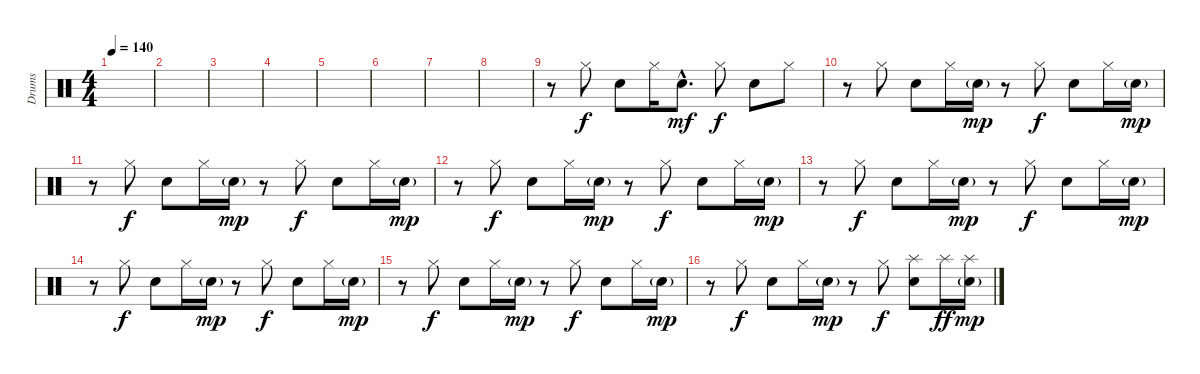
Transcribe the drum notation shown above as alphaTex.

\track ("Drums" "Drums") {instrument percussion}
\staff {score}
\articulation defaults
\ts (4 4)
\tempo 140
\clef neutral
\ks c
|
|
|
|
|
|
|
|
r.8{volume 8} "Hi-Hat (closed)".8{volume 14} "Hand Clap (hit)".8 "Hi-Hat (closed)".16 "Hand Clap (hit)"{hac}.8{d dy mf} "Hi-Hat (closed)".8{dy f} "Hand Clap (hit)".8 "Hi-Hat (closed)".8 |
r.8 "Hi-Hat (closed)".8 "Hand Clap (hit)".8 "Hi-Hat (closed)".16 "Hand Clap (hit)"{g}.16{dy mp} r.8 "Hi-Hat (closed)".8{dy f} "Hand Clap (hit)".8 "Hi-Hat (closed)".16 "Hand Clap (hit)"{g}.16{dy mp} |
r.8 "Hi-Hat (closed)".8{dy f} "Hand Clap (hit)".8 "Hi-Hat (closed)".16 "Hand Clap (hit)"{g}.16{dy mp} r.8 "Hi-Hat (closed)".8{dy f} "Hand Clap (hit)".8 "Hi-Hat (closed)".16 "Hand Clap (hit)"{g}.16{dy mp} |
r.8 "Hi-Hat (closed)".8{dy f} "Hand Clap (hit)".8 "Hi-Hat (closed)".16 "Hand Clap (hit)"{g}.16{dy mp} r.8 "Hi-Hat (closed)".8{dy f} "Hand Clap (hit)".8 "Hi-Hat (closed)".16 "Hand Clap (hit)"{g}.16{dy mp} |
r.8 "Hi-Hat (closed)".8{dy f} "Hand Clap (hit)".8 "Hi-Hat (closed)".16 "Hand Clap (hit)"{g}.16{dy mp} r.8 "Hi-Hat (closed)".8{dy f} "Hand Clap (hit)".8 "Hi-Hat (closed)".16 "Hand Clap (hit)"{g}.16{dy mp} |
r.8 "Hi-Hat (closed)".8{dy f} "Hand Clap (hit)".8 "Hi-Hat (closed)".16 "Hand Clap (hit)"{g}.16{dy mp} r.8 "Hi-Hat (closed)".8{dy f} "Hand Clap (hit)".8 "Hi-Hat (closed)".16 "Hand Clap (hit)"{g}.16{dy mp} |
r.8 "Hi-Hat (closed)".8{dy f} "Hand Clap (hit)".8 "Hi-Hat (closed)".16 "Hand Clap (hit)"{g}.16{dy mp} r.8 "Hi-Hat (closed)".8{dy f} "Hand Clap (hit)".8 "Hi-Hat (closed)".16 "Hand Clap (hit)"{g}.16{dy mp} |
r.8 "Hi-Hat (closed)".8{dy f} "Hand Clap (hit)".8 "Hi-Hat (closed)".16 "Hand Clap (hit)"{g}.16{dy mp} r.8 "Hi-Hat (closed)".8{dy f} ("Splash (hit)" "Hand Clap (hit)").8 "Splash (hit)".16{dy ff} ("Splash (hit)" "Hand Clap (hit)"{g}).16{dy mp}
